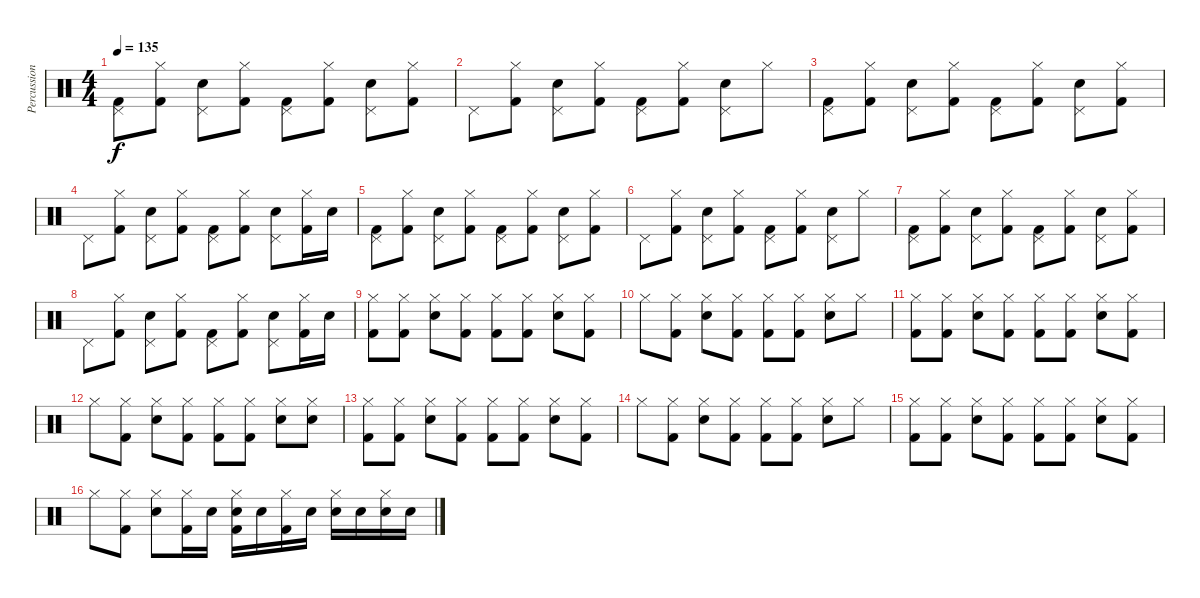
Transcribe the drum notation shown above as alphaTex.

\track ("Percussions" "Percussion") {instrument percussion}
\staff {score}
\articulation defaults
\ts (4 4)
\tempo 135
\clef neutral
\ks c
("Pedal Hi-Hat (hit)" "Kick (hit) 2").8{dy f} ("Hi-Hat (closed)" "Kick (hit) 2").8 ("Pedal Hi-Hat (hit)" "Electric Snare (hit)").8 ("Hi-Hat (closed)" "Kick (hit) 2").8 ("Pedal Hi-Hat (hit)" "Kick (hit) 2").8 ("Hi-Hat (closed)" "Kick (hit) 2").8 ("Pedal Hi-Hat (hit)" "Electric Snare (hit)").8 ("Hi-Hat (closed)" "Kick (hit) 2").8 |
"Pedal Hi-Hat (hit)".8 ("Hi-Hat (closed)" "Kick (hit) 2").8 ("Pedal Hi-Hat (hit)" "Electric Snare (hit)").8 ("Hi-Hat (closed)" "Kick (hit) 2").8 ("Pedal Hi-Hat (hit)" "Kick (hit) 2").8 ("Hi-Hat (closed)" "Kick (hit) 2").8 ("Pedal Hi-Hat (hit)" "Electric Snare (hit)").8 "Hi-Hat (closed)".8 |
("Pedal Hi-Hat (hit)" "Kick (hit) 2").8 ("Hi-Hat (closed)" "Kick (hit) 2").8 ("Pedal Hi-Hat (hit)" "Electric Snare (hit)").8 ("Hi-Hat (closed)" "Kick (hit) 2").8 ("Pedal Hi-Hat (hit)" "Kick (hit) 2").8 ("Hi-Hat (closed)" "Kick (hit) 2").8 ("Pedal Hi-Hat (hit)" "Electric Snare (hit)").8 ("Hi-Hat (closed)" "Kick (hit) 2").8 |
"Pedal Hi-Hat (hit)".8 ("Hi-Hat (closed)" "Kick (hit) 2").8 ("Pedal Hi-Hat (hit)" "Electric Snare (hit)").8 ("Hi-Hat (closed)" "Kick (hit) 2").8 ("Pedal Hi-Hat (hit)" "Kick (hit) 2").8 ("Hi-Hat (closed)" "Kick (hit) 2").8 ("Pedal Hi-Hat (hit)" "Electric Snare (hit)").8 ("Hi-Hat (closed)" "Kick (hit) 2").16 "Electric Snare (hit)".16 |
("Pedal Hi-Hat (hit)" "Kick (hit) 2").8 ("Hi-Hat (closed)" "Kick (hit) 2").8 ("Pedal Hi-Hat (hit)" "Electric Snare (hit)").8 ("Hi-Hat (closed)" "Kick (hit) 2").8 ("Pedal Hi-Hat (hit)" "Kick (hit) 2").8 ("Hi-Hat (closed)" "Kick (hit) 2").8 ("Pedal Hi-Hat (hit)" "Electric Snare (hit)").8 ("Hi-Hat (closed)" "Kick (hit) 2").8 |
"Pedal Hi-Hat (hit)".8 ("Hi-Hat (closed)" "Kick (hit) 2").8 ("Pedal Hi-Hat (hit)" "Electric Snare (hit)").8 ("Hi-Hat (closed)" "Kick (hit) 2").8 ("Pedal Hi-Hat (hit)" "Kick (hit) 2").8 ("Hi-Hat (closed)" "Kick (hit) 2").8 ("Pedal Hi-Hat (hit)" "Electric Snare (hit)").8 "Hi-Hat (closed)".8 |
("Pedal Hi-Hat (hit)" "Kick (hit) 2").8 ("Hi-Hat (closed)" "Kick (hit) 2").8 ("Pedal Hi-Hat (hit)" "Electric Snare (hit)").8 ("Hi-Hat (closed)" "Kick (hit) 2").8 ("Pedal Hi-Hat (hit)" "Kick (hit) 2").8 ("Hi-Hat (closed)" "Kick (hit) 2").8 ("Pedal Hi-Hat (hit)" "Electric Snare (hit)").8 ("Hi-Hat (closed)" "Kick (hit) 2").8 |
"Pedal Hi-Hat (hit)".8 ("Hi-Hat (closed)" "Kick (hit) 2").8 ("Pedal Hi-Hat (hit)" "Electric Snare (hit)").8 ("Hi-Hat (closed)" "Kick (hit) 2").8 ("Pedal Hi-Hat (hit)" "Kick (hit) 2").8 ("Hi-Hat (closed)" "Kick (hit) 2").8 ("Pedal Hi-Hat (hit)" "Electric Snare (hit)").8 ("Hi-Hat (closed)" "Kick (hit) 2").16 "Electric Snare (hit)".16 |
("Hi-Hat (closed)" "Kick (hit) 2").8 ("Hi-Hat (closed)" "Kick (hit) 2").8 ("Hi-Hat (closed)" "Electric Snare (hit)").8 ("Hi-Hat (closed)" "Kick (hit) 2").8 ("Hi-Hat (closed)" "Kick (hit) 2").8 ("Hi-Hat (closed)" "Kick (hit) 2").8 ("Hi-Hat (closed)" "Electric Snare (hit)").8 ("Hi-Hat (closed)" "Kick (hit) 2").8 |
"Hi-Hat (closed)".8 ("Hi-Hat (closed)" "Kick (hit) 2").8 ("Hi-Hat (closed)" "Electric Snare (hit)").8 ("Hi-Hat (closed)" "Kick (hit) 2").8 ("Hi-Hat (closed)" "Kick (hit) 2").8 ("Hi-Hat (closed)" "Kick (hit) 2").8 ("Hi-Hat (closed)" "Electric Snare (hit)").8 "Hi-Hat (closed)".8 |
("Hi-Hat (closed)" "Kick (hit) 2").8 ("Hi-Hat (closed)" "Kick (hit) 2").8 ("Hi-Hat (closed)" "Electric Snare (hit)").8 ("Hi-Hat (closed)" "Kick (hit) 2").8 ("Hi-Hat (closed)" "Kick (hit) 2").8 ("Hi-Hat (closed)" "Kick (hit) 2").8 ("Hi-Hat (closed)" "Electric Snare (hit)").8 ("Hi-Hat (closed)" "Kick (hit) 2").8 |
"Hi-Hat (closed)".8 ("Hi-Hat (closed)" "Kick (hit) 2").8 ("Hi-Hat (closed)" "Electric Snare (hit)").8 ("Hi-Hat (closed)" "Kick (hit) 2").8 ("Hi-Hat (closed)" "Kick (hit) 2").8 ("Hi-Hat (closed)" "Kick (hit) 2").8 ("Hi-Hat (closed)" "Electric Snare (hit)").8 ("Hi-Hat (closed)" "Electric Snare (hit)").8 |
("Hi-Hat (closed)" "Kick (hit) 2").8 ("Hi-Hat (closed)" "Kick (hit) 2").8 ("Hi-Hat (closed)" "Electric Snare (hit)").8 ("Hi-Hat (closed)" "Kick (hit) 2").8 ("Hi-Hat (closed)" "Kick (hit) 2").8 ("Hi-Hat (closed)" "Kick (hit) 2").8 ("Hi-Hat (closed)" "Electric Snare (hit)").8 ("Hi-Hat (closed)" "Kick (hit) 2").8 |
"Hi-Hat (closed)".8 ("Hi-Hat (closed)" "Kick (hit) 2").8 ("Hi-Hat (closed)" "Electric Snare (hit)").8 ("Hi-Hat (closed)" "Kick (hit) 2").8 ("Hi-Hat (closed)" "Kick (hit) 2").8 ("Hi-Hat (closed)" "Kick (hit) 2").8 ("Hi-Hat (closed)" "Electric Snare (hit)").8 "Hi-Hat (closed)".8 |
("Hi-Hat (closed)" "Kick (hit) 2").8 ("Hi-Hat (closed)" "Kick (hit) 2").8 ("Hi-Hat (closed)" "Electric Snare (hit)").8 ("Hi-Hat (closed)" "Kick (hit) 2").8 ("Hi-Hat (closed)" "Kick (hit) 2").8 ("Hi-Hat (closed)" "Kick (hit) 2").8 ("Hi-Hat (closed)" "Electric Snare (hit)").8 ("Hi-Hat (closed)" "Kick (hit) 2").8 |
"Hi-Hat (closed)".8 ("Hi-Hat (closed)" "Kick (hit) 2").8 ("Hi-Hat (closed)" "Electric Snare (hit)").8 ("Hi-Hat (closed)" "Kick (hit) 2").16 "Electric Snare (hit)".16 ("Hi-Hat (closed)" "Electric Snare (hit)" "Kick (hit) 2").16 "Electric Snare (hit)".16 ("Hi-Hat (closed)" "Kick (hit) 2").16 "Electric Snare (hit)".16 ("Hi-Hat (closed)" "Electric Snare (hit)").16 "Electric Snare (hit)".16 ("Hi-Hat (closed)" "Electric Snare (hit)").16 "Electric Snare (hit)".16
